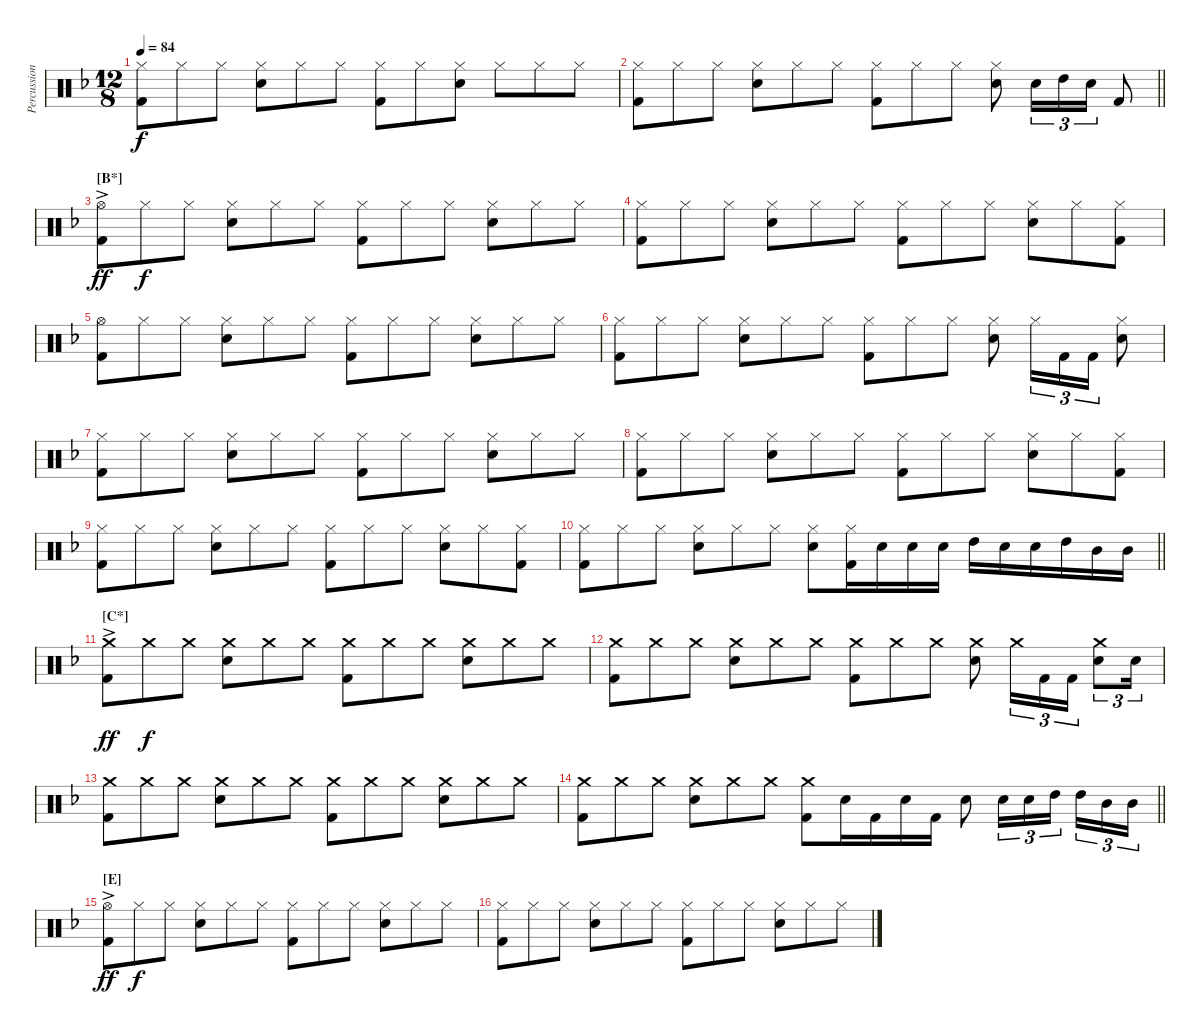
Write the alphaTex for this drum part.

\track ("Percussions" "Percussion") {instrument percussion}
\staff {score}
\articulation defaults
\ts (12 8)
\tempo 84
\clef neutral
\ks dminor
("Hi-Hat (closed)" "Kick (hit) 2").8{dy f} "Hi-Hat (closed)".8 "Hi-Hat (closed)".8 ("Hi-Hat (closed)" "Electric Snare (hit)").8 "Hi-Hat (closed)".8 "Hi-Hat (closed)".8 ("Hi-Hat (closed)" "Kick (hit) 2").8 "Hi-Hat (closed)".8 ("Hi-Hat (closed)" "Electric Snare (hit)").8 "Hi-Hat (closed)".8 "Hi-Hat (closed)".8 "Hi-Hat (closed)".8 |
\barLineRight lightlight
("Hi-Hat (closed)" "Kick (hit) 2").8 "Hi-Hat (closed)".8 "Hi-Hat (closed)".8 ("Hi-Hat (closed)" "Electric Snare (hit)").8 "Hi-Hat (closed)".8 "Hi-Hat (closed)".8 ("Hi-Hat (closed)" "Kick (hit) 2").8 "Hi-Hat (closed)".8 "Hi-Hat (closed)".8 ("Hi-Hat (closed)" "Electric Snare (hit)").8 "Electric Snare (hit)".16{tu (3 2)} "High Tom (hit)".16{tu (3 2)} "Electric Snare (hit)".16{tu (3 2)} "Kick (hit) 2".8 |
\section ("" "[B*]")
("Hi-Hat (open)"{ac} "Kick (hit) 2").8{dy ff} "Hi-Hat (closed)".8{dy f} "Hi-Hat (closed)".8 ("Hi-Hat (closed)" "Electric Snare (hit)").8 "Hi-Hat (closed)".8 "Hi-Hat (closed)".8 ("Hi-Hat (closed)" "Kick (hit) 2").8 "Hi-Hat (closed)".8 "Hi-Hat (closed)".8 ("Hi-Hat (closed)" "Electric Snare (hit)").8 "Hi-Hat (closed)".8 "Hi-Hat (closed)".8 |
("Hi-Hat (closed)" "Kick (hit) 2").8 "Hi-Hat (closed)".8 "Hi-Hat (closed)".8 ("Hi-Hat (closed)" "Electric Snare (hit)").8 "Hi-Hat (closed)".8 "Hi-Hat (closed)".8 ("Hi-Hat (closed)" "Kick (hit) 2").8 "Hi-Hat (closed)".8 "Hi-Hat (closed)".8 ("Hi-Hat (closed)" "Electric Snare (hit)").8 "Hi-Hat (closed)".8 ("Hi-Hat (closed)" "Kick (hit) 2").8 |
("Hi-Hat (open)" "Kick (hit) 2").8 "Hi-Hat (closed)".8 "Hi-Hat (closed)".8 ("Hi-Hat (closed)" "Electric Snare (hit)").8 "Hi-Hat (closed)".8 "Hi-Hat (closed)".8 ("Hi-Hat (closed)" "Kick (hit) 2").8 "Hi-Hat (closed)".8 "Hi-Hat (closed)".8 ("Hi-Hat (closed)" "Electric Snare (hit)").8 "Hi-Hat (closed)".8 "Hi-Hat (closed)".8 |
("Hi-Hat (closed)" "Kick (hit) 2").8 "Hi-Hat (closed)".8 "Hi-Hat (closed)".8 ("Hi-Hat (closed)" "Electric Snare (hit)").8 "Hi-Hat (closed)".8 "Hi-Hat (closed)".8 ("Hi-Hat (closed)" "Kick (hit) 2").8 "Hi-Hat (closed)".8 "Hi-Hat (closed)".8 ("Hi-Hat (closed)" "Electric Snare (hit)").8 "Hi-Hat (closed)".16{tu (3 2)} "Kick (hit) 2".16{tu (3 2)} "Kick (hit) 2".16{tu (3 2)} ("Hi-Hat (closed)" "Electric Snare (hit)").8 |
("Hi-Hat (closed)" "Kick (hit) 2").8 "Hi-Hat (closed)".8 "Hi-Hat (closed)".8 ("Hi-Hat (closed)" "Electric Snare (hit)").8 "Hi-Hat (closed)".8 "Hi-Hat (closed)".8 ("Hi-Hat (closed)" "Kick (hit) 2").8 "Hi-Hat (closed)".8 "Hi-Hat (closed)".8 ("Hi-Hat (closed)" "Electric Snare (hit)").8 "Hi-Hat (closed)".8 "Hi-Hat (closed)".8 |
("Hi-Hat (closed)" "Kick (hit) 2").8 "Hi-Hat (closed)".8 "Hi-Hat (closed)".8 ("Hi-Hat (closed)" "Electric Snare (hit)").8 "Hi-Hat (closed)".8 "Hi-Hat (closed)".8 ("Hi-Hat (closed)" "Kick (hit) 2").8 "Hi-Hat (closed)".8 "Hi-Hat (closed)".8 ("Hi-Hat (closed)" "Electric Snare (hit)").8 "Hi-Hat (closed)".8 ("Hi-Hat (closed)" "Kick (hit) 2").8 |
("Hi-Hat (closed)" "Kick (hit) 2").8 "Hi-Hat (closed)".8 "Hi-Hat (closed)".8 ("Hi-Hat (closed)" "Electric Snare (hit)").8 "Hi-Hat (closed)".8 "Hi-Hat (closed)".8 ("Hi-Hat (closed)" "Kick (hit) 2").8 "Hi-Hat (closed)".8 "Hi-Hat (closed)".8 ("Hi-Hat (closed)" "Electric Snare (hit)").8 "Hi-Hat (closed)".8 ("Hi-Hat (closed)" "Kick (hit) 2").8 |
\barLineRight lightlight
("Hi-Hat (closed)" "Kick (hit) 2").8 "Hi-Hat (closed)".8 "Hi-Hat (closed)".8 ("Hi-Hat (closed)" "Electric Snare (hit)").8 "Hi-Hat (closed)".8 "Hi-Hat (closed)".8 ("Hi-Hat (closed)" "Electric Snare (hit)").8 ("Hi-Hat (closed)" "Kick (hit) 2").16 "Electric Snare (hit)".16 "Electric Snare (hit)".16 "Electric Snare (hit)".16 "High Tom (hit)".16 "Electric Snare (hit)".16 "Electric Snare (hit)".16 "High Tom (hit)".16 "Mid Tom (hit)".16 "Mid Tom (hit)".16 |
\section ("" "[C*]")
("Crash medium (hit)"{ac} "Kick (hit) 2").8{dy ff} "Crash medium (hit)".8{dy f} "Crash medium (hit)".8 ("Crash medium (hit)" "Electric Snare (hit)").8 "Crash medium (hit)".8 "Crash medium (hit)".8 ("Crash medium (hit)" "Kick (hit) 2").8 "Crash medium (hit)".8 "Crash medium (hit)".8 ("Crash medium (hit)" "Electric Snare (hit)").8 "Crash medium (hit)".8 "Crash medium (hit)".8 |
("Crash medium (hit)" "Kick (hit) 2").8 "Crash medium (hit)".8 "Crash medium (hit)".8 ("Crash medium (hit)" "Electric Snare (hit)").8 "Crash medium (hit)".8 "Crash medium (hit)".8 ("Crash medium (hit)" "Kick (hit) 2").8 "Crash medium (hit)".8 "Crash medium (hit)".8 ("Crash medium (hit)" "Electric Snare (hit)").8 "Crash medium (hit)".16{tu (3 2)} "Kick (hit) 2".16{tu (3 2)} "Kick (hit) 2".16{tu (3 2)} ("Crash medium (hit)" "Electric Snare (hit)").8{tu (3 2)} "Electric Snare (hit)".16{tu (3 2)} |
("Crash medium (hit)" "Kick (hit) 2").8 "Crash medium (hit)".8 "Crash medium (hit)".8 ("Crash medium (hit)" "Electric Snare (hit)").8 "Crash medium (hit)".8 "Crash medium (hit)".8 ("Crash medium (hit)" "Kick (hit) 2").8 "Crash medium (hit)".8 "Crash medium (hit)".8 ("Crash medium (hit)" "Electric Snare (hit)").8 "Crash medium (hit)".8 "Crash medium (hit)".8 |
\barLineRight lightlight
("Crash medium (hit)" "Kick (hit) 2").8 "Crash medium (hit)".8 "Crash medium (hit)".8 ("Crash medium (hit)" "Electric Snare (hit)").8 "Crash medium (hit)".8 "Crash medium (hit)".8 ("Crash medium (hit)" "Kick (hit) 2").8 "Electric Snare (hit)".16 "Kick (hit) 2".16 "Electric Snare (hit)".16 "Kick (hit) 2".16 "Electric Snare (hit)".8 "Electric Snare (hit)".16{tu (3 2)} "Electric Snare (hit)".16{tu (3 2)} "High Tom (hit)".16{tu (3 2) beam splitsecondary} "High Tom (hit)".16{tu (3 2)} "Mid Tom (hit)".16{tu (3 2)} "Mid Tom (hit)".16{tu (3 2)} |
\section ("" "[E]")
("Hi-Hat (open)"{ac} "Kick (hit) 2").8{dy ff} "Hi-Hat (closed)".8{dy f} "Hi-Hat (closed)".8 ("Hi-Hat (closed)" "Electric Snare (hit)").8 "Hi-Hat (closed)".8 "Hi-Hat (closed)".8 ("Hi-Hat (closed)" "Kick (hit) 2").8 "Hi-Hat (closed)".8 "Hi-Hat (closed)".8 ("Hi-Hat (closed)" "Electric Snare (hit)").8 "Hi-Hat (closed)".8 "Hi-Hat (closed)".8 |
("Hi-Hat (closed)" "Kick (hit) 2").8 "Hi-Hat (closed)".8 "Hi-Hat (closed)".8 ("Hi-Hat (closed)" "Electric Snare (hit)").8 "Hi-Hat (closed)".8 "Hi-Hat (closed)".8 ("Hi-Hat (closed)" "Kick (hit) 2").8 "Hi-Hat (closed)".8 "Hi-Hat (closed)".8 ("Hi-Hat (closed)" "Electric Snare (hit)").8 "Hi-Hat (closed)".8 "Hi-Hat (closed)".8
